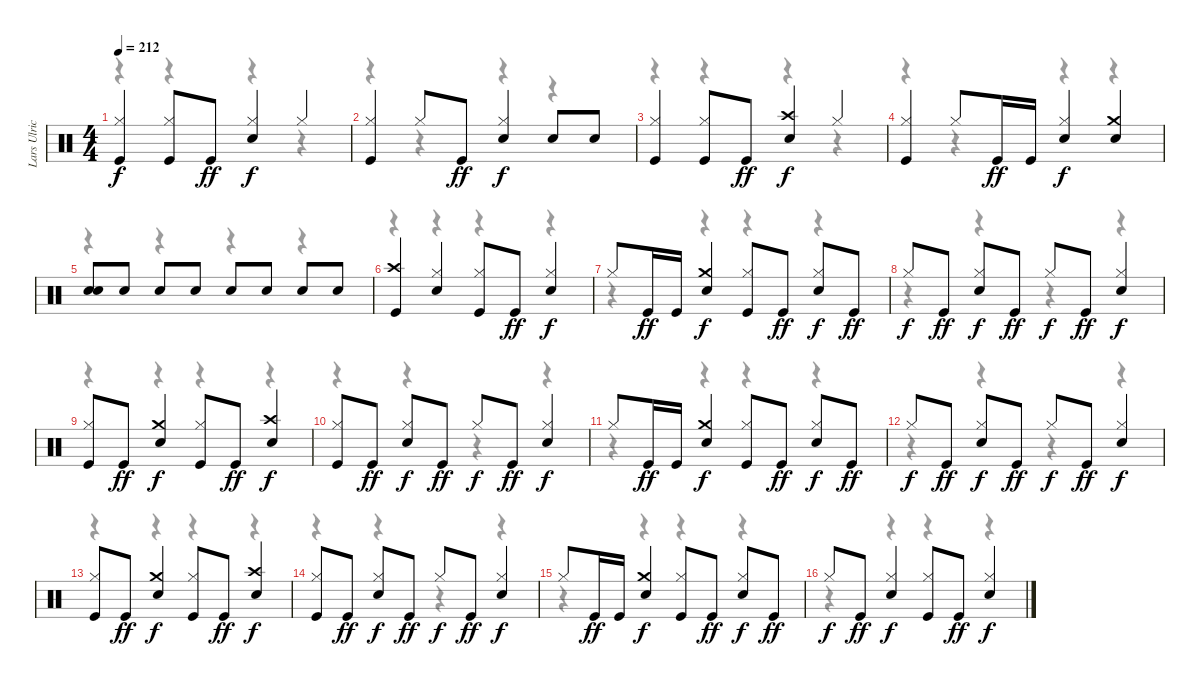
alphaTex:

\track ("Lars Ulrich" "Lars Ulric") {instrument percussion}
\staff {score}
\articulation defaults
\voice
\ts (4 4)
\tempo 212
\clef neutral
\ks c
("Hi-Hat (closed)" "Kick (hit)").4{dy f} ("Hi-Hat (closed)" "Kick (hit)").8 "Kick (hit)".8{dy ff} ("Hi-Hat (closed)" "Snare (hit) 2").4{dy f} "Hi-Hat (closed)".4 |
("Hi-Hat (closed)" "Kick (hit)").4 "Hi-Hat (closed)".8 "Kick (hit)".8{dy ff} ("Hi-Hat (closed)" "Snare (hit) 2").4{dy f} "Snare (hit) 2".8 "Snare (hit) 2".8 |
("Hi-Hat (closed)" "Kick (hit)").4 ("Hi-Hat (closed)" "Kick (hit)").8 "Kick (hit)".8{dy ff} ("Crash high (hit)" "Snare (hit) 2").4{dy f} "Hi-Hat (closed)".4 |
("Hi-Hat (closed)" "Kick (hit)").4 "Hi-Hat (closed)".8 "Kick (hit)".16{dy ff} "Kick (hit)".16 ("Hi-Hat (closed)" "Snare (hit) 2").4{dy f} ("Crash medium (hit)" "Snare (hit) 2").4 |
("Snare (hit) 2" "Snare (hit) 2").8 "Snare (hit) 2".8 "Snare (hit) 2".8 "Snare (hit) 2".8 "Snare (hit) 2".8 "Snare (hit) 2".8 "Snare (hit) 2".8 "Snare (hit) 2".8 |
("Crash high (hit)" "Kick (hit)").4 ("Hi-Hat (closed)" "Snare (hit) 2").4 ("Hi-Hat (closed)" "Kick (hit)").8 "Kick (hit)".8{dy ff} ("Hi-Hat (closed)" "Snare (hit) 2").4{dy f} |
"Hi-Hat (closed)".8 "Kick (hit)".16{dy ff} "Kick (hit)".16 ("Crash medium (hit)" "Snare (hit) 2").4{dy f} ("Hi-Hat (closed)" "Kick (hit)").8 "Kick (hit)".8{dy ff} ("Hi-Hat (closed)" "Snare (hit) 2").8{dy f} "Kick (hit)".8{dy ff} |
"Hi-Hat (closed)".8{dy f} "Kick (hit)".8{dy ff} ("Hi-Hat (closed)" "Snare (hit) 2").8{dy f} "Kick (hit)".8{dy ff} "Hi-Hat (closed)".8{dy f} "Kick (hit)".8{dy ff} ("Hi-Hat (closed)" "Snare (hit) 2").4{dy f} |
("Hi-Hat (closed)" "Kick (hit)").8 "Kick (hit)".8{dy ff} ("Crash medium (hit)" "Snare (hit) 2").4{dy f} ("Hi-Hat (closed)" "Kick (hit)").8 "Kick (hit)".8{dy ff} ("Crash high (hit)" "Snare (hit) 2").4{dy f} |
("Hi-Hat (closed)" "Kick (hit)").8 "Kick (hit)".8{dy ff} ("Hi-Hat (closed)" "Snare (hit) 2").8{dy f} "Kick (hit)".8{dy ff} "Hi-Hat (closed)".8{dy f} "Kick (hit)".8{dy ff} ("Hi-Hat (closed)" "Snare (hit) 2").4{dy f} |
"Hi-Hat (closed)".8 "Kick (hit)".16{dy ff} "Kick (hit)".16 ("Crash medium (hit)" "Snare (hit) 2").4{dy f} ("Hi-Hat (closed)" "Kick (hit)").8 "Kick (hit)".8{dy ff} ("Hi-Hat (closed)" "Snare (hit) 2").8{dy f} "Kick (hit)".8{dy ff} |
"Hi-Hat (closed)".8{dy f} "Kick (hit)".8{dy ff} ("Hi-Hat (closed)" "Snare (hit) 2").8{dy f} "Kick (hit)".8{dy ff} "Hi-Hat (closed)".8{dy f} "Kick (hit)".8{dy ff} ("Hi-Hat (closed)" "Snare (hit) 2").4{dy f} |
("Hi-Hat (closed)" "Kick (hit)").8 "Kick (hit)".8{dy ff} ("Crash medium (hit)" "Snare (hit) 2").4{dy f} ("Hi-Hat (closed)" "Kick (hit)").8 "Kick (hit)".8{dy ff} ("Crash high (hit)" "Snare (hit) 2").4{dy f} |
("Hi-Hat (closed)" "Kick (hit)").8 "Kick (hit)".8{dy ff} ("Hi-Hat (closed)" "Snare (hit) 2").8{dy f} "Kick (hit)".8{dy ff} "Hi-Hat (closed)".8{dy f} "Kick (hit)".8{dy ff} ("Hi-Hat (closed)" "Snare (hit) 2").4{dy f} |
"Hi-Hat (closed)".8 "Kick (hit)".16{dy ff} "Kick (hit)".16 ("Crash medium (hit)" "Snare (hit) 2").4{dy f} ("Hi-Hat (closed)" "Kick (hit)").8 "Kick (hit)".8{dy ff} ("Hi-Hat (closed)" "Snare (hit) 2").8{dy f} "Kick (hit)".8{dy ff} |
"Hi-Hat (closed)".8{dy f} "Kick (hit)".8{dy ff} ("Hi-Hat (closed)" "Snare (hit) 2").4{dy f} ("Hi-Hat (closed)" "Kick (hit)").8 "Kick (hit)".8{dy ff} ("Hi-Hat (closed)" "Snare (hit) 2").4{dy f}
\voice
\clef neutral
\ottava regular
\simile none
\ks c
r.4{dy f} r.4 r.4 r.4 |
r.4 r.4 r.4 r.4 |
r.4 r.4 r.4 r.4 |
r.4 r.4 r.4 r.4 |
r.4 r.4 r.4 r.4 |
r.4 r.4 r.4 r.4 |
r.4 r.4 r.4 r.4 |
r.4 r.4 r.4 r.4 |
r.4 r.4 r.4 r.4 |
r.4 r.4 r.4 r.4 |
r.4 r.4 r.4 r.4 |
r.4 r.4 r.4 r.4 |
r.4 r.4 r.4 r.4 |
r.4 r.4 r.4 r.4 |
r.4 r.4 r.4 r.4 |
r.4 r.4 r.4 r.4
